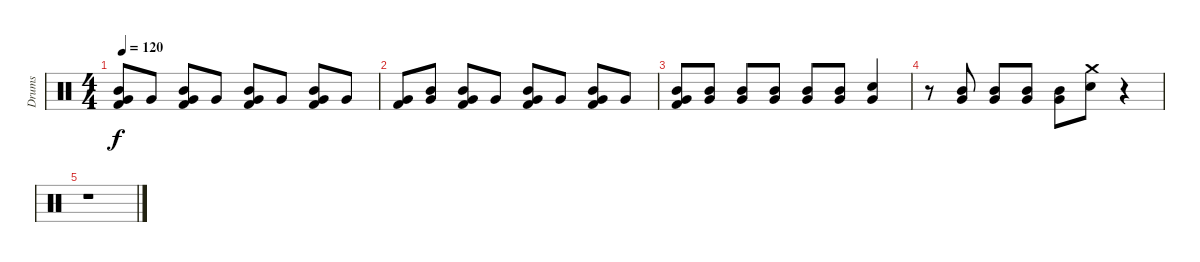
\track ("Drums" "Drums") {instrument percussion}
\staff {score}
\articulation defaults
\ts (4 4)
\tempo 120
\clef neutral
\ks c
("Kick (hit) 2" "Very Low Tom (hit)" "Mid Tom (hit)").8{dy f} "Very Low Tom (hit)".8 ("Kick (hit) 2" "Very Low Tom (hit)" "Mid Tom (hit)").8 "Very Low Tom (hit)".8 ("Kick (hit) 2" "Very Low Tom (hit)" "Mid Tom (hit)").8 "Very Low Tom (hit)".8 ("Kick (hit) 2" "Very Low Tom (hit)" "Mid Tom (hit)").8 "Very Low Tom (hit)".8 |
("Very Low Tom (hit)" "Kick (hit) 2").8 ("Mid Tom (hit)" "Very Low Tom (hit)").8 ("Kick (hit) 2" "Very Low Tom (hit)" "Mid Tom (hit)").8 "Very Low Tom (hit)".8 ("Very Low Tom (hit)" "Mid Tom (hit)" "Kick (hit) 2").8 "Very Low Tom (hit)".8 ("Mid Tom (hit)" "Very Low Tom (hit)" "Kick (hit) 2").8 "Very Low Tom (hit)".8 |
("Very Low Tom (hit)" "Mid Tom (hit)" "Kick (hit) 2").8 ("Very Low Tom (hit)" "Mid Tom (hit)").8 ("Mid Tom (hit)" "Very Low Tom (hit)").8 ("Very Low Tom (hit)" "Mid Tom (hit)").8 ("Very Low Tom (hit)" "Mid Tom (hit)").8 ("Very Low Tom (hit)" "Mid Tom (hit)").8 ("Very Low Tom (hit)" "Snare (hit) 2").4 |
r.8 ("Very Low Tom (hit)" "Mid Tom (hit)").8 ("Mid Tom (hit)" "Very Low Tom (hit)").8 ("Mid Tom (hit)" "Very Low Tom (hit)").8 ("Mid Tom (hit)" "Very Low Tom (hit)").8 ("Crash medium (hit)" "Snare (hit) 2").8 r.4 |
r.1
